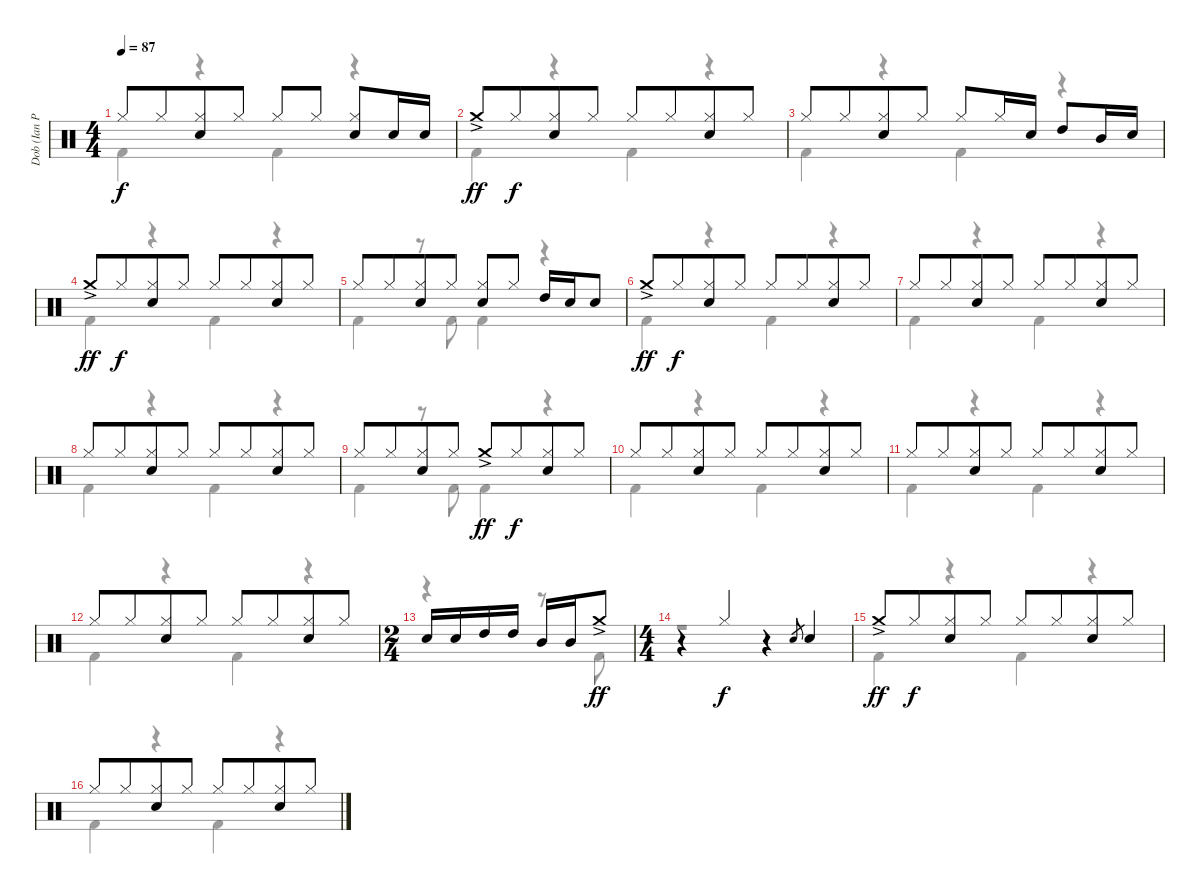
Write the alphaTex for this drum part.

\track ("Dob (Ian Paice)" "Dob (Ian P") {instrument percussion}
\staff {score}
\articulation defaults
\voice
\ts (4 4)
\tempo 87
\clef neutral
\ks c "Hi-Hat (closed)".8{dy f} "Hi-Hat (closed)".8{beam merge}
("Hi-Hat (closed)" "Electric Snare (hit)").8 "Hi-Hat (closed)".8 "Hi-Hat (closed)".8 "Hi-Hat (closed)".8{beam split} ("Hi-Hat (closed)" "Electric Snare (hit)").8 "Electric Snare (hit)".16 "Electric Snare (hit)".16 |
"Crash medium (hit)"{ac}.8{dy ff} "Hi-Hat (closed)".8{dy f beam merge} ("Hi-Hat (closed)" "Electric Snare (hit)").8 "Hi-Hat (closed)".8 "Hi-Hat (closed)".8 "Hi-Hat (closed)".8{beam merge} ("Hi-Hat (closed)" "Electric Snare (hit)").8 "Hi-Hat (closed)".8 |
"Hi-Hat (closed)".8 "Hi-Hat (closed)".8{beam merge} ("Hi-Hat (closed)" "Electric Snare (hit)").8 "Hi-Hat (closed)".8 "Hi-Hat (closed)".8 "Hi-Hat (closed)".16 "Electric Snare (hit)".16 "High Tom (hit)".8 "Mid Tom (hit)".16 "Electric Snare (hit)".16 |
"Crash medium (hit)"{ac}.8{dy ff} "Hi-Hat (closed)".8{dy f beam merge} ("Hi-Hat (closed)" "Electric Snare (hit)").8 "Hi-Hat (closed)".8 "Hi-Hat (closed)".8 "Hi-Hat (closed)".8{beam merge} ("Hi-Hat (closed)" "Electric Snare (hit)").8 "Hi-Hat (closed)".8 |
"Hi-Hat (closed)".8 "Hi-Hat (closed)".8{beam merge} ("Hi-Hat (closed)" "Electric Snare (hit)").8 "Hi-Hat (closed)".8{beam split} ("Hi-Hat (closed)" "Electric Snare (hit)").8 "Hi-Hat (closed)".8 "High Tom (hit)".16 "Electric Snare (hit)".16 "Electric Snare (hit)".8 |
"Crash medium (hit)"{ac}.8{dy ff} "Hi-Hat (closed)".8{dy f beam merge} ("Hi-Hat (closed)" "Electric Snare (hit)").8 "Hi-Hat (closed)".8 "Hi-Hat (closed)".8 "Hi-Hat (closed)".8{beam merge} ("Hi-Hat (closed)" "Electric Snare (hit)").8 "Hi-Hat (closed)".8 |
"Hi-Hat (closed)".8 "Hi-Hat (closed)".8{beam merge} ("Hi-Hat (closed)" "Electric Snare (hit)").8 "Hi-Hat (closed)".8 "Hi-Hat (closed)".8 "Hi-Hat (closed)".8{beam merge} ("Hi-Hat (closed)" "Electric Snare (hit)").8 "Hi-Hat (closed)".8 |
"Hi-Hat (closed)".8 "Hi-Hat (closed)".8{beam merge} ("Hi-Hat (closed)" "Electric Snare (hit)").8 "Hi-Hat (closed)".8 "Hi-Hat (closed)".8 "Hi-Hat (closed)".8{beam merge} ("Hi-Hat (closed)" "Electric Snare (hit)").8 "Hi-Hat (closed)".8 |
"Hi-Hat (closed)".8 "Hi-Hat (closed)".8{beam merge} ("Hi-Hat (closed)" "Electric Snare (hit)").8 "Hi-Hat (closed)".8 "Crash medium (hit)"{ac}.8{dy ff} "Hi-Hat (closed)".8{dy f beam merge} ("Hi-Hat (closed)" "Electric Snare (hit)").8 "Hi-Hat (closed)".8 |
"Hi-Hat (closed)".8 "Hi-Hat (closed)".8{beam merge} ("Hi-Hat (closed)" "Electric Snare (hit)").8 "Hi-Hat (closed)".8 "Hi-Hat (closed)".8 "Hi-Hat (closed)".8{beam merge} ("Hi-Hat (closed)" "Electric Snare (hit)").8 "Hi-Hat (closed)".8 |
"Hi-Hat (closed)".8 "Hi-Hat (closed)".8{beam merge} ("Hi-Hat (closed)" "Electric Snare (hit)").8 "Hi-Hat (closed)".8 "Hi-Hat (closed)".8 "Hi-Hat (closed)".8{beam merge} ("Hi-Hat (closed)" "Electric Snare (hit)").8 "Hi-Hat (closed)".8 |
"Hi-Hat (closed)".8 "Hi-Hat (closed)".8{beam merge} ("Hi-Hat (closed)" "Electric Snare (hit)").8 "Hi-Hat (closed)".8 "Hi-Hat (closed)".8 "Hi-Hat (closed)".8{beam merge} ("Hi-Hat (closed)" "Electric Snare (hit)").8 "Hi-Hat (closed)".8 |
\ts (2 4)
"Electric Snare (hit)".16 "Electric Snare (hit)".16 "High Tom (hit)".16 "High Tom (hit)".16 "Mid Tom (hit)".16 "Mid Tom (hit)".16 "Crash medium (hit)"{ac}.8{dy ff} |
\ts (4 4)
r.4 "Hi-Hat (closed)".4{dy f} r.4 "Electric Snare (hit)".8{gr} "Electric Snare (hit)".4 |
"Crash medium (hit)"{ac}.8{dy ff} "Hi-Hat (closed)".8{dy f beam merge} ("Hi-Hat (closed)" "Electric Snare (hit)").8 "Hi-Hat (closed)".8 "Hi-Hat (closed)".8 "Hi-Hat (closed)".8{beam merge} ("Hi-Hat (closed)" "Electric Snare (hit)").8 "Hi-Hat (closed)".8 |
"Hi-Hat (closed)".8 "Hi-Hat (closed)".8{beam merge} ("Hi-Hat (closed)" "Electric Snare (hit)").8 "Hi-Hat (closed)".8 "Hi-Hat (closed)".8 "Hi-Hat (closed)".8{beam merge} ("Hi-Hat (closed)" "Electric Snare (hit)").8 "Hi-Hat (closed)".8
\voice
\clef neutral
\ottava regular
\simile none
\ks c "Kick (hit) 2".4{dy f}
r.4 "Kick (hit) 2".4 r.4 |
"Kick (hit) 2".4 r.4 "Kick (hit) 2".4 r.4 |
"Kick (hit) 2".4 r.4 "Kick (hit) 2".4 r.4 |
"Kick (hit) 2".4 r.4 "Kick (hit) 2".4 r.4 |
"Kick (hit) 2".4 r.8 "Kick (hit) 2".8 "Kick (hit) 2".4 r.4 |
"Kick (hit) 2".4 r.4 "Kick (hit) 2".4 r.4 |
"Kick (hit) 2".4 r.4 "Kick (hit) 2".4 r.4 |
"Kick (hit) 2".4 r.4 "Kick (hit) 2".4 r.4 |
"Kick (hit) 2".4 r.8 "Kick (hit) 2".8 "Kick (hit) 2".4 r.4 |
"Kick (hit) 2".4 r.4 "Kick (hit) 2".4 r.4 |
"Kick (hit) 2".4 r.4 "Kick (hit) 2".4 r.4 |
"Kick (hit) 2".4 r.4 "Kick (hit) 2".4 r.4 |
r.4 r.8 "Kick (hit) 2".8 |
r.1 |
"Kick (hit) 2".4 r.4 "Kick (hit) 2".4 r.4 |
"Kick (hit) 2".4 r.4 "Kick (hit) 2".4 r.4
